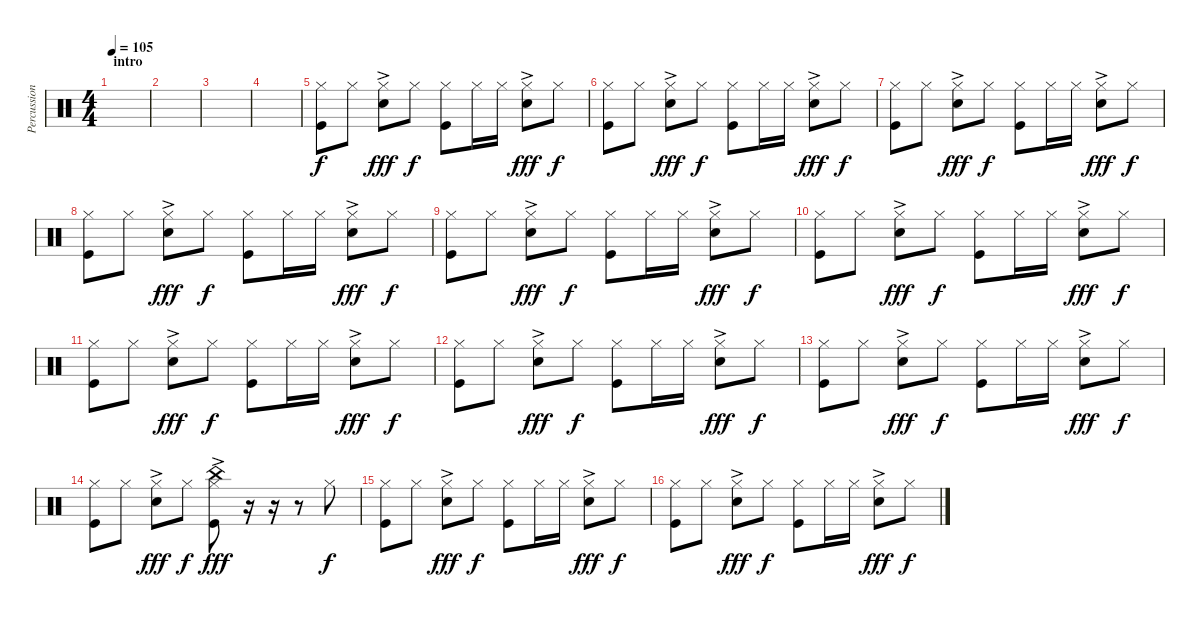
\track ("Percussions" "Percussion") {instrument percussion}
\staff {score}
\articulation defaults
\ts (4 4)
\section ("" "intro")
\tempo 105
\clef neutral
\ks c
|
|
|
|
("Kick (hit)" "Hi-Hat (closed)").8 "Hi-Hat (closed)".8 ("Electric Snare (hit)"{ac} "Hi-Hat (closed)").8{dy fff} "Hi-Hat (closed)".8{dy f} ("Kick (hit)" "Hi-Hat (closed)").8 "Hi-Hat (closed)".16 "Hi-Hat (closed)".16 ("Electric Snare (hit)"{ac} "Hi-Hat (closed)").8{dy fff} "Hi-Hat (closed)".8{dy f} |
("Kick (hit)" "Hi-Hat (closed)").8 "Hi-Hat (closed)".8 ("Electric Snare (hit)"{ac} "Hi-Hat (closed)").8{dy fff} "Hi-Hat (closed)".8{dy f} ("Kick (hit)" "Hi-Hat (closed)").8 "Hi-Hat (closed)".16 "Hi-Hat (closed)".16 ("Electric Snare (hit)"{ac} "Hi-Hat (closed)").8{dy fff} "Hi-Hat (closed)".8{dy f} |
("Kick (hit)" "Hi-Hat (closed)").8 "Hi-Hat (closed)".8 ("Electric Snare (hit)"{ac} "Hi-Hat (closed)").8{dy fff} "Hi-Hat (closed)".8{dy f} ("Kick (hit)" "Hi-Hat (closed)").8 "Hi-Hat (closed)".16 "Hi-Hat (closed)".16 ("Electric Snare (hit)"{ac} "Hi-Hat (closed)").8{dy fff} "Hi-Hat (closed)".8{dy f} |
("Kick (hit)" "Hi-Hat (closed)").8 "Hi-Hat (closed)".8 ("Electric Snare (hit)"{ac} "Hi-Hat (closed)").8{dy fff} "Hi-Hat (closed)".8{dy f} ("Kick (hit)" "Hi-Hat (closed)").8 "Hi-Hat (closed)".16 "Hi-Hat (closed)".16 ("Electric Snare (hit)"{ac} "Hi-Hat (closed)").8{dy fff} "Hi-Hat (closed)".8{dy f} |
("Kick (hit)" "Hi-Hat (closed)").8 "Hi-Hat (closed)".8 ("Electric Snare (hit)"{ac} "Hi-Hat (closed)").8{dy fff} "Hi-Hat (closed)".8{dy f} ("Kick (hit)" "Hi-Hat (closed)").8 "Hi-Hat (closed)".16 "Hi-Hat (closed)".16 ("Electric Snare (hit)"{ac} "Hi-Hat (closed)").8{dy fff} "Hi-Hat (closed)".8{dy f} |
("Kick (hit)" "Hi-Hat (closed)").8 "Hi-Hat (closed)".8 ("Electric Snare (hit)"{ac} "Hi-Hat (closed)").8{dy fff} "Hi-Hat (closed)".8{dy f} ("Kick (hit)" "Hi-Hat (closed)").8 "Hi-Hat (closed)".16 "Hi-Hat (closed)".16 ("Electric Snare (hit)"{ac} "Hi-Hat (closed)").8{dy fff} "Hi-Hat (closed)".8{dy f} |
("Kick (hit)" "Hi-Hat (closed)").8 "Hi-Hat (closed)".8 ("Electric Snare (hit)"{ac} "Hi-Hat (closed)").8{dy fff} "Hi-Hat (closed)".8{dy f} ("Kick (hit)" "Hi-Hat (closed)").8 "Hi-Hat (closed)".16 "Hi-Hat (closed)".16 ("Electric Snare (hit)"{ac} "Hi-Hat (closed)").8{dy fff} "Hi-Hat (closed)".8{dy f} |
("Kick (hit)" "Hi-Hat (closed)").8 "Hi-Hat (closed)".8 ("Electric Snare (hit)"{ac} "Hi-Hat (closed)").8{dy fff} "Hi-Hat (closed)".8{dy f} ("Kick (hit)" "Hi-Hat (closed)").8 "Hi-Hat (closed)".16 "Hi-Hat (closed)".16 ("Electric Snare (hit)"{ac} "Hi-Hat (closed)").8{dy fff} "Hi-Hat (closed)".8{dy f} |
("Kick (hit)" "Hi-Hat (closed)").8 "Hi-Hat (closed)".8 ("Electric Snare (hit)"{ac} "Hi-Hat (closed)").8{dy fff} "Hi-Hat (closed)".8{dy f} ("Kick (hit)" "Hi-Hat (closed)").8 "Hi-Hat (closed)".16 "Hi-Hat (closed)".16 ("Electric Snare (hit)"{ac} "Hi-Hat (closed)").8{dy fff} "Hi-Hat (closed)".8{dy f} |
("Kick (hit)" "Hi-Hat (closed)").8 "Hi-Hat (closed)".8 ("Electric Snare (hit)"{ac} "Hi-Hat (closed)").8{dy fff} "Hi-Hat (closed)".8{dy f} ("Kick (hit)"{ac} "China (hit)" "Hi-Hat (closed)").8{dy fff} r.16 r.16 r.8 "Hi-Hat (closed)".8{dy f} |
("Kick (hit)" "Hi-Hat (closed)").8 "Hi-Hat (closed)".8 ("Electric Snare (hit)"{ac} "Hi-Hat (closed)").8{dy fff} "Hi-Hat (closed)".8{dy f} ("Kick (hit)" "Hi-Hat (closed)").8 "Hi-Hat (closed)".16 "Hi-Hat (closed)".16 ("Electric Snare (hit)"{ac} "Hi-Hat (closed)").8{dy fff} "Hi-Hat (closed)".8{dy f} |
("Kick (hit)" "Hi-Hat (closed)").8 "Hi-Hat (closed)".8 ("Electric Snare (hit)"{ac} "Hi-Hat (closed)").8{dy fff} "Hi-Hat (closed)".8{dy f} ("Kick (hit)" "Hi-Hat (closed)").8 "Hi-Hat (closed)".16 "Hi-Hat (closed)".16 ("Electric Snare (hit)"{ac} "Hi-Hat (closed)").8{dy fff} "Hi-Hat (closed)".8{dy f}
